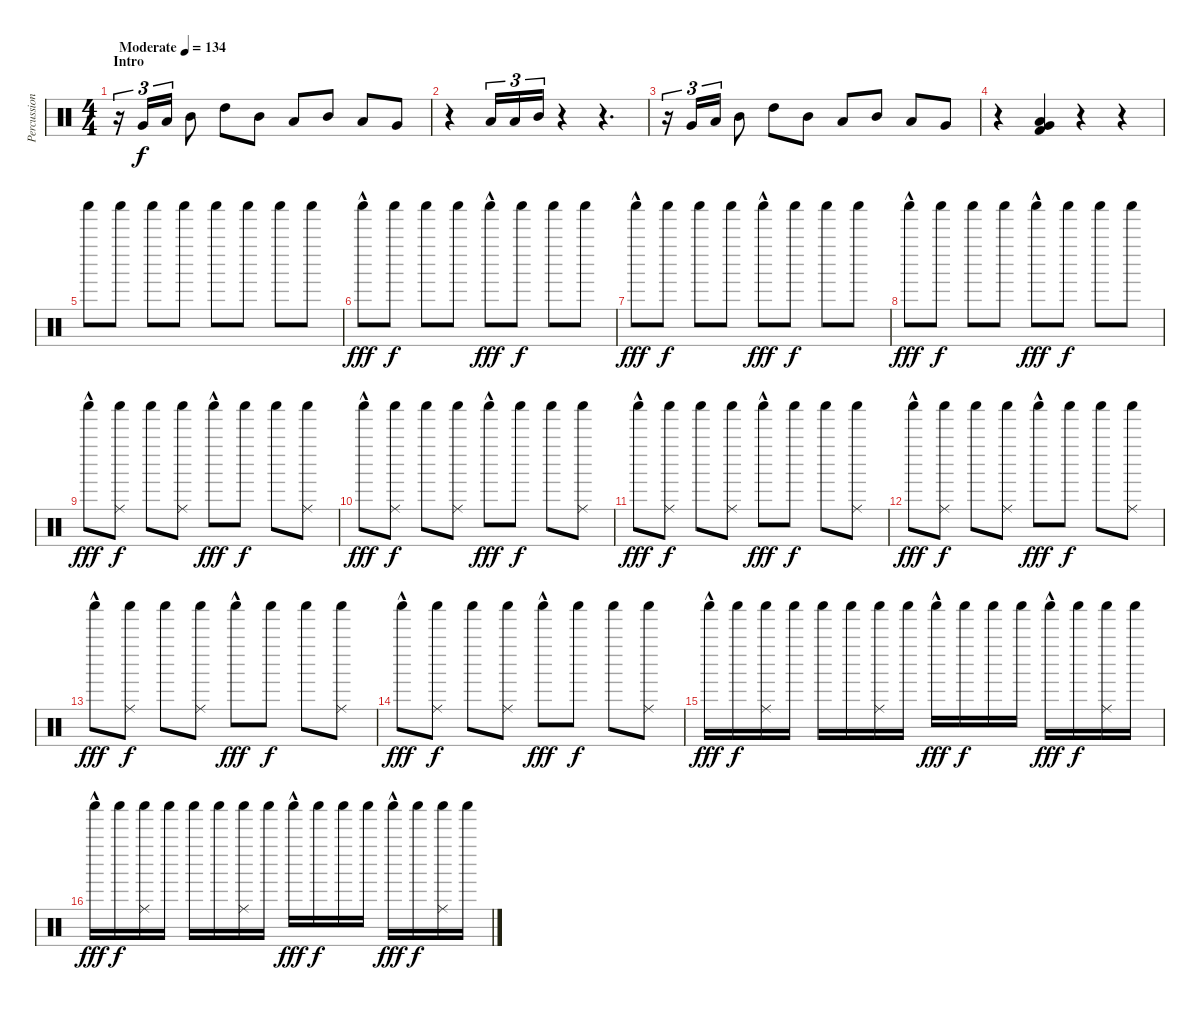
\track ("Percussion" "Percussion") {instrument percussion}
\staff {score}
\articulation defaults
\ts (4 4)
\section ("" "Intro")
\tempo (134 "Moderate")
\clef neutral
\ks c
r.16{tu (3 2) dy f} "Very Low Tom (hit)".16{tu (3 2)} "Low Tom (hit)".16{tu (3 2)} "Mid Tom (hit)".8 "High Tom (hit)".8 "Mid Tom (hit)".8 "Low Tom (hit)".8 "Mid Tom (hit)".8 "Low Tom (hit)".8 "Very Low Tom (hit)".8 |
r.4 "Low Floor Tom (hit)".16{tu (3 2)} "Low Tom (hit)".16{tu (3 2)} "Mid Tom (hit)".16{tu (3 2)} r.4 r.4{d} |
r.16{tu (3 2)} "Very Low Tom (hit)".16{tu (3 2)} "Low Tom (hit)".16{tu (3 2)} "Mid Tom (hit)".8 "High Tom (hit)".8 "Mid Tom (hit)".8 "Low Tom (hit)".8 "Mid Tom (hit)".8 "Low Tom (hit)".8 "Very Low Tom (hit)".8 |
r.4 ("Kick (hit) 2" "Low Floor Tom (hit)" "Very Low Tom (hit)").4 r.4 r.4{volume 0} |
"Shaker (hit)".8{volume 13} "Shaker (hit)".8 "Shaker (hit)".8 "Shaker (hit)".8 "Shaker (hit)".8 "Shaker (hit)".8 "Shaker (hit)".8 "Shaker (hit)".8 |
"Shaker (hit)"{hac}.8{dy fff} "Shaker (hit)".8{dy f} "Shaker (hit)".8 "Shaker (hit)".8 "Shaker (hit)"{hac}.8{dy fff} "Shaker (hit)".8{dy f} "Shaker (hit)".8 "Shaker (hit)".8 |
"Shaker (hit)"{hac}.8{dy fff} "Shaker (hit)".8{dy f} "Shaker (hit)".8 "Shaker (hit)".8 "Shaker (hit)"{hac}.8{dy fff} "Shaker (hit)".8{dy f} "Shaker (hit)".8 "Shaker (hit)".8 |
"Shaker (hit)"{hac}.8{dy fff} "Shaker (hit)".8{dy f} "Shaker (hit)".8 "Shaker (hit)".8 "Shaker (hit)"{hac}.8{dy fff} "Shaker (hit)".8{dy f} "Shaker (hit)".8 "Shaker (hit)".8 |
"Shaker (hit)"{hac}.8{dy fff} ("Shaker (hit)" "Ride (middle)").8{dy f} "Shaker (hit)".8 ("Shaker (hit)" "Ride (middle)").8 "Shaker (hit)"{hac}.8{dy fff} "Shaker (hit)".8{dy f} "Shaker (hit)".8 ("Shaker (hit)" "Ride (middle)").8 |
"Shaker (hit)"{hac}.8{dy fff} ("Shaker (hit)" "Ride (middle)").8{dy f} "Shaker (hit)".8 ("Shaker (hit)" "Ride (middle)").8 "Shaker (hit)"{hac}.8{dy fff} "Shaker (hit)".8{dy f} "Shaker (hit)".8 ("Shaker (hit)" "Ride (middle)").8 |
"Shaker (hit)"{hac}.8{dy fff} ("Shaker (hit)" "Ride (middle)").8{dy f} "Shaker (hit)".8 ("Shaker (hit)" "Ride (middle)").8 "Shaker (hit)"{hac}.8{dy fff} "Shaker (hit)".8{dy f} "Shaker (hit)".8 ("Shaker (hit)" "Ride (middle)").8 |
"Shaker (hit)"{hac}.8{dy fff} ("Shaker (hit)" "Ride (middle)").8{dy f} "Shaker (hit)".8 ("Shaker (hit)" "Ride (middle)").8 "Shaker (hit)"{hac}.8{dy fff} "Shaker (hit)".8{dy f} "Shaker (hit)".8 ("Shaker (hit)" "Ride (middle)").8 |
"Shaker (hit)"{hac}.8{dy fff} ("Shaker (hit)" "Ride (middle)").8{dy f} "Shaker (hit)".8 ("Shaker (hit)" "Ride (middle)").8 "Shaker (hit)"{hac}.8{dy fff} "Shaker (hit)".8{dy f} "Shaker (hit)".8 ("Shaker (hit)" "Ride (middle)").8 |
"Shaker (hit)"{hac}.8{dy fff} ("Shaker (hit)" "Ride (middle)").8{dy f} "Shaker (hit)".8 ("Shaker (hit)" "Ride (middle)").8 "Shaker (hit)"{hac}.8{dy fff} "Shaker (hit)".8{dy f} "Shaker (hit)".8 ("Shaker (hit)" "Ride (middle)").8 |
"Shaker (hit)"{hac}.16{dy fff} "Shaker (hit)".16{dy f} ("Shaker (hit)" "Ride (middle)").16 "Shaker (hit)".16 "Shaker (hit)".16 "Shaker (hit)".16 ("Shaker (hit)" "Ride (middle)").16 "Shaker (hit)".16 "Shaker (hit)"{hac}.16{dy fff} "Shaker (hit)".16{dy f} "Shaker (hit)".16 "Shaker (hit)".16 "Shaker (hit)"{hac}.16{dy fff} "Shaker (hit)".16{dy f} ("Shaker (hit)" "Ride (middle)").16 "Shaker (hit)".16 |
"Shaker (hit)"{hac}.16{dy fff} "Shaker (hit)".16{dy f} ("Shaker (hit)" "Ride (middle)").16 "Shaker (hit)".16 "Shaker (hit)".16 "Shaker (hit)".16 ("Shaker (hit)" "Ride (middle)").16 "Shaker (hit)".16 "Shaker (hit)"{hac}.16{dy fff} "Shaker (hit)".16{dy f} "Shaker (hit)".16 "Shaker (hit)".16 "Shaker (hit)"{hac}.16{dy fff} "Shaker (hit)".16{dy f} ("Shaker (hit)" "Ride (middle)").16 "Shaker (hit)".16
